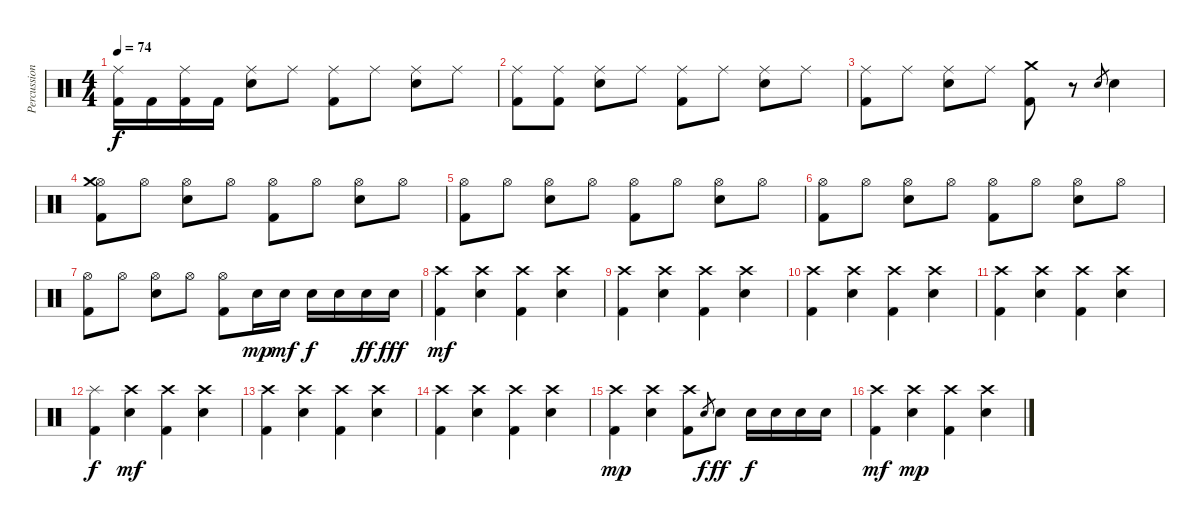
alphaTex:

\track ("Percussions" "Percussion") {instrument percussion}
\staff {score}
\articulation defaults
\ts (4 4)
\tempo 74
\clef neutral
\ks c
("Ride (middle)" "Kick (hit) 2").16{dy f} "Kick (hit) 2".16 ("Ride (middle)" "Kick (hit) 2").16 "Kick (hit) 2".16 ("Ride (middle)" "Electric Snare (hit)").8 "Ride (middle)".8 ("Ride (middle)" "Kick (hit) 2").8 "Ride (middle)".8 ("Ride (middle)" "Electric Snare (hit)").8 "Ride (middle)".8 |
("Ride (middle)" "Kick (hit) 2").8 ("Ride (middle)" "Kick (hit) 2").8 ("Ride (middle)" "Electric Snare (hit)").8 "Ride (middle)".8 ("Ride (middle)" "Kick (hit) 2").8 "Ride (middle)".8 ("Ride (middle)" "Electric Snare (hit)").8 "Ride (middle)".8 |
("Ride (middle)" "Kick (hit) 2").8 "Ride (middle)".8 ("Ride (middle)" "Electric Snare (hit)").8 "Ride (middle)".8 ("Crash medium (hit)" "Kick (hit) 2").8 r.8 "Electric Snare (hit)".8{gr} "Electric Snare (hit)".4 |
("Hi-Hat (open)" "Kick (hit) 2" "Crash medium (hit)").8 "Hi-Hat (open)".8 ("Hi-Hat (open)" "Electric Snare (hit)").8 "Hi-Hat (open)".8 ("Hi-Hat (open)" "Kick (hit) 2").8 "Hi-Hat (open)".8 ("Hi-Hat (open)" "Electric Snare (hit)").8 "Hi-Hat (open)".8 |
("Hi-Hat (open)" "Kick (hit) 2").8 "Hi-Hat (open)".8 ("Hi-Hat (open)" "Electric Snare (hit)").8 "Hi-Hat (open)".8 ("Hi-Hat (open)" "Kick (hit) 2").8 "Hi-Hat (open)".8 ("Hi-Hat (open)" "Electric Snare (hit)").8 "Hi-Hat (open)".8 |
("Hi-Hat (open)" "Kick (hit) 2").8 "Hi-Hat (open)".8 ("Hi-Hat (open)" "Electric Snare (hit)").8 "Hi-Hat (open)".8 ("Hi-Hat (open)" "Kick (hit) 2").8 "Hi-Hat (open)".8 ("Hi-Hat (open)" "Electric Snare (hit)").8 "Hi-Hat (open)".8 |
("Hi-Hat (open)" "Kick (hit) 2").8 "Hi-Hat (open)".8 ("Hi-Hat (open)" "Electric Snare (hit)").8 "Hi-Hat (open)".8 ("Hi-Hat (open)" "Kick (hit) 2").8 "Electric Snare (hit)".16{dy mp} "Electric Snare (hit)".16{dy mf} "Electric Snare (hit)".16{dy f} "Electric Snare (hit)".16 "Electric Snare (hit)".16{dy ff} "Electric Snare (hit)".16{dy fff} |
("Crash high (hit)" "Kick (hit) 2").4{dy mf} ("Crash high (hit)" "Electric Snare (hit)").4 ("Crash high (hit)" "Kick (hit) 2").4 ("Crash high (hit)" "Electric Snare (hit)").4 |
("Crash high (hit)" "Kick (hit) 2").4 ("Crash high (hit)" "Electric Snare (hit)").4 ("Crash high (hit)" "Kick (hit) 2").4 ("Crash high (hit)" "Electric Snare (hit)").4 |
("Crash high (hit)" "Kick (hit) 2").4 ("Crash high (hit)" "Electric Snare (hit)").4 ("Crash high (hit)" "Kick (hit) 2").4 ("Crash high (hit)" "Electric Snare (hit)").4 |
("Crash high (hit)" "Kick (hit) 2").4 ("Crash high (hit)" "Electric Snare (hit)").4 ("Crash high (hit)" "Kick (hit) 2").4 ("Crash high (hit)" "Electric Snare (hit)").4 |
("Kick (hit) 2" "Splash (hit)").4{dy f} ("Crash high (hit)" "Electric Snare (hit)").4{dy mf} ("Crash high (hit)" "Kick (hit) 2").4 ("Crash high (hit)" "Electric Snare (hit)").4 |
("Crash high (hit)" "Kick (hit) 2").4 ("Crash high (hit)" "Electric Snare (hit)").4 ("Crash high (hit)" "Kick (hit) 2").4 ("Crash high (hit)" "Electric Snare (hit)").4 |
("Crash high (hit)" "Kick (hit) 2").4 ("Crash high (hit)" "Electric Snare (hit)").4 ("Crash high (hit)" "Kick (hit) 2").4 ("Crash high (hit)" "Electric Snare (hit)").4 |
("Crash high (hit)" "Kick (hit) 2").4{dy mp} ("Crash high (hit)" "Electric Snare (hit)").4 ("Crash high (hit)" "Kick (hit) 2").8 "Electric Snare (hit)".8{gr dy f} "Electric Snare (hit)".8{dy ff} "Electric Snare (hit)".16{dy f} "Electric Snare (hit)".16 "Electric Snare (hit)".16 "Electric Snare (hit)".16 |
("Crash high (hit)" "Kick (hit) 2").4{dy mf} ("Crash high (hit)" "Electric Snare (hit)").4{dy mp} ("Crash high (hit)" "Kick (hit) 2").4 ("Crash high (hit)" "Electric Snare (hit)").4
